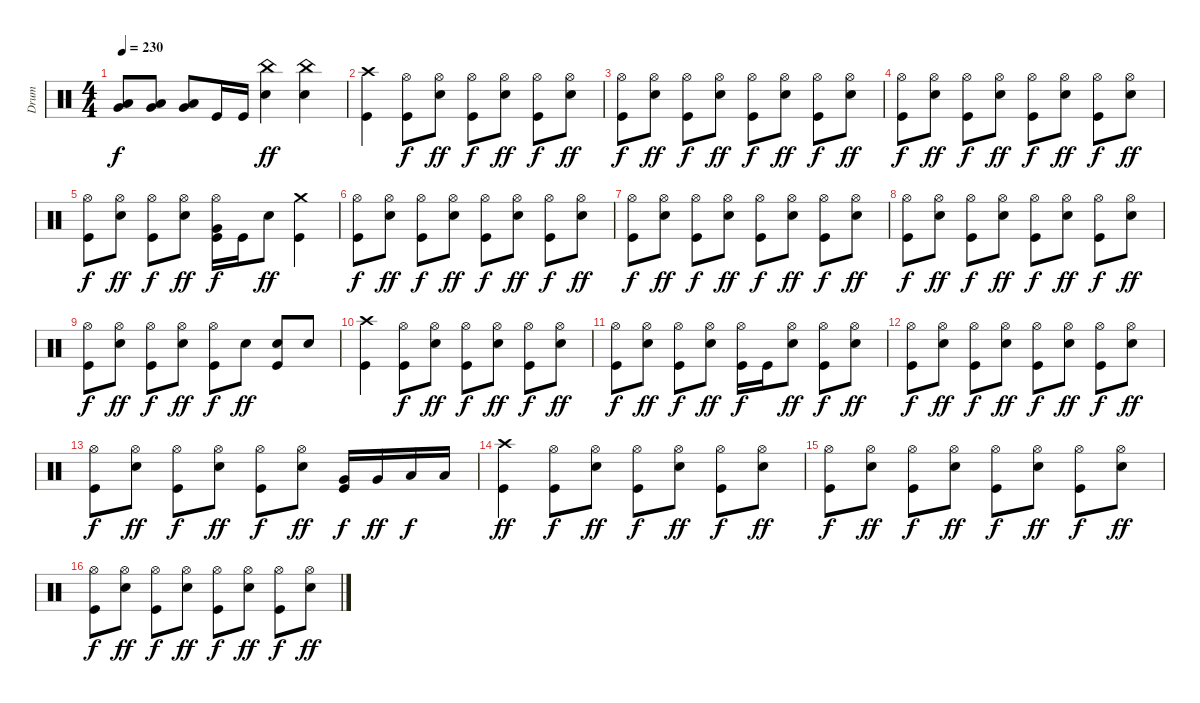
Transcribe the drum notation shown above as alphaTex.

\track ("Drum" "Drum") {instrument percussion}
\staff {score}
\articulation defaults
\ts (4 4)
\tempo 230
\clef neutral
\ks c
("Very Low Tom (hit)" "Low Floor Tom (hit)").8{dy f} ("Very Low Tom (hit)" "Low Floor Tom (hit)").8 ("Very Low Tom (hit)" "Low Floor Tom (hit)").8 "Kick (hit)".16 "Kick (hit)".16 ("Electric Snare (hit)" "China (hit)").4{dy ff} ("Electric Snare (hit)" "China (hit)").4 |
("Kick (hit)" "Crash high (hit)").4 ("Kick (hit)" "Hi-Hat (open)").8{dy f} ("Electric Snare (hit)" "Hi-Hat (open)").8{dy ff} ("Kick (hit)" "Hi-Hat (open)").8{dy f} ("Electric Snare (hit)" "Hi-Hat (open)").8{dy ff} ("Kick (hit)" "Hi-Hat (open)").8{dy f} ("Electric Snare (hit)" "Hi-Hat (open)").8{dy ff} |
("Kick (hit)" "Hi-Hat (open)").8{dy f} ("Electric Snare (hit)" "Hi-Hat (open)").8{dy ff} ("Kick (hit)" "Hi-Hat (open)").8{dy f} ("Electric Snare (hit)" "Hi-Hat (open)").8{dy ff} ("Kick (hit)" "Hi-Hat (open)").8{dy f} ("Electric Snare (hit)" "Hi-Hat (open)").8{dy ff} ("Kick (hit)" "Hi-Hat (open)").8{dy f} ("Electric Snare (hit)" "Hi-Hat (open)").8{dy ff} |
("Kick (hit)" "Hi-Hat (open)").8{dy f} ("Electric Snare (hit)" "Hi-Hat (open)").8{dy ff} ("Kick (hit)" "Hi-Hat (open)").8{dy f} ("Electric Snare (hit)" "Hi-Hat (open)").8{dy ff} ("Kick (hit)" "Hi-Hat (open)").8{dy f} ("Electric Snare (hit)" "Hi-Hat (open)").8{dy ff} ("Kick (hit)" "Hi-Hat (open)").8{dy f} ("Electric Snare (hit)" "Hi-Hat (open)").8{dy ff} |
("Kick (hit)" "Hi-Hat (open)").8{dy f} ("Electric Snare (hit)" "Hi-Hat (open)").8{dy ff} ("Kick (hit)" "Hi-Hat (open)").8{dy f} ("Electric Snare (hit)" "Hi-Hat (open)").8{dy ff} ("Kick (hit)" "Very Low Tom (hit)" "Hi-Hat (open)").16{dy f} "Kick (hit)".16 "Electric Snare (hit)".8{dy ff} ("Kick (hit)" "Crash medium (hit)").4 |
("Kick (hit)" "Hi-Hat (open)").8{dy f} ("Electric Snare (hit)" "Hi-Hat (open)").8{dy ff} ("Kick (hit)" "Hi-Hat (open)").8{dy f} ("Electric Snare (hit)" "Hi-Hat (open)").8{dy ff} ("Kick (hit)" "Hi-Hat (open)").8{dy f} ("Electric Snare (hit)" "Hi-Hat (open)").8{dy ff} ("Kick (hit)" "Hi-Hat (open)").8{dy f} ("Electric Snare (hit)" "Hi-Hat (open)").8{dy ff} |
("Kick (hit)" "Hi-Hat (open)").8{dy f} ("Electric Snare (hit)" "Hi-Hat (open)").8{dy ff} ("Kick (hit)" "Hi-Hat (open)").8{dy f} ("Electric Snare (hit)" "Hi-Hat (open)").8{dy ff} ("Kick (hit)" "Hi-Hat (open)").8{dy f} ("Electric Snare (hit)" "Hi-Hat (open)").8{dy ff} ("Kick (hit)" "Hi-Hat (open)").8{dy f} ("Electric Snare (hit)" "Hi-Hat (open)").8{dy ff} |
("Kick (hit)" "Hi-Hat (open)").8{dy f} ("Electric Snare (hit)" "Hi-Hat (open)").8{dy ff} ("Kick (hit)" "Hi-Hat (open)").8{dy f} ("Electric Snare (hit)" "Hi-Hat (open)").8{dy ff} ("Kick (hit)" "Hi-Hat (open)").8{dy f} ("Electric Snare (hit)" "Hi-Hat (open)").8{dy ff} ("Kick (hit)" "Hi-Hat (open)").8{dy f} ("Electric Snare (hit)" "Hi-Hat (open)").8{dy ff} |
("Kick (hit)" "Hi-Hat (open)").8{dy f} ("Electric Snare (hit)" "Hi-Hat (open)").8{dy ff} ("Kick (hit)" "Hi-Hat (open)").8{dy f} ("Electric Snare (hit)" "Hi-Hat (open)").8{dy ff} ("Kick (hit)" "Hi-Hat (open)").8{dy f} "Electric Snare (hit)".8{dy ff} ("Kick (hit)" "Electric Snare (hit)").8 "Electric Snare (hit)".8 |
("Kick (hit)" "Crash high (hit)").4 ("Kick (hit)" "Hi-Hat (open)").8{dy f} ("Electric Snare (hit)" "Hi-Hat (open)").8{dy ff} ("Kick (hit)" "Hi-Hat (open)").8{dy f} ("Electric Snare (hit)" "Hi-Hat (open)").8{dy ff} ("Kick (hit)" "Hi-Hat (open)").8{dy f} ("Electric Snare (hit)" "Hi-Hat (open)").8{dy ff} |
("Kick (hit)" "Hi-Hat (open)").8{dy f} ("Electric Snare (hit)" "Hi-Hat (open)").8{dy ff} ("Kick (hit)" "Hi-Hat (open)").8{dy f} ("Electric Snare (hit)" "Hi-Hat (open)").8{dy ff} ("Kick (hit)" "Hi-Hat (open)").16{dy f} "Kick (hit)".16 ("Electric Snare (hit)" "Hi-Hat (open)").8{dy ff} ("Kick (hit)" "Hi-Hat (open)").8{dy f} ("Electric Snare (hit)" "Hi-Hat (open)").8{dy ff} |
("Kick (hit)" "Hi-Hat (open)").8{dy f} ("Electric Snare (hit)" "Hi-Hat (open)").8{dy ff} ("Kick (hit)" "Hi-Hat (open)").8{dy f} ("Electric Snare (hit)" "Hi-Hat (open)").8{dy ff} ("Kick (hit)" "Hi-Hat (open)").8{dy f} ("Electric Snare (hit)" "Hi-Hat (open)").8{dy ff} ("Kick (hit)" "Hi-Hat (open)").8{dy f} ("Electric Snare (hit)" "Hi-Hat (open)").8{dy ff} |
("Kick (hit)" "Hi-Hat (open)").8{dy f} ("Electric Snare (hit)" "Hi-Hat (open)").8{dy ff} ("Kick (hit)" "Hi-Hat (open)").8{dy f} ("Electric Snare (hit)" "Hi-Hat (open)").8{dy ff} ("Kick (hit)" "Hi-Hat (open)").8{dy f} ("Electric Snare (hit)" "Hi-Hat (open)").8{dy ff} ("Kick (hit)" "Very Low Tom (hit)").16{dy f} "Very Low Tom (hit)".16{dy ff} "Low Floor Tom (hit)".16{dy f} "Low Floor Tom (hit)".16 |
("Kick (hit)" "Crash high (hit)").4{dy ff} ("Kick (hit)" "Hi-Hat (open)").8{dy f} ("Electric Snare (hit)" "Hi-Hat (open)").8{dy ff} ("Kick (hit)" "Hi-Hat (open)").8{dy f} ("Electric Snare (hit)" "Hi-Hat (open)").8{dy ff} ("Kick (hit)" "Hi-Hat (open)").8{dy f} ("Electric Snare (hit)" "Hi-Hat (open)").8{dy ff} |
("Kick (hit)" "Hi-Hat (open)").8{dy f} ("Electric Snare (hit)" "Hi-Hat (open)").8{dy ff} ("Kick (hit)" "Hi-Hat (open)").8{dy f} ("Electric Snare (hit)" "Hi-Hat (open)").8{dy ff} ("Kick (hit)" "Hi-Hat (open)").8{dy f} ("Electric Snare (hit)" "Hi-Hat (open)").8{dy ff} ("Kick (hit)" "Hi-Hat (open)").8{dy f} ("Electric Snare (hit)" "Hi-Hat (open)").8{dy ff} |
("Kick (hit)" "Hi-Hat (open)").8{dy f} ("Electric Snare (hit)" "Hi-Hat (open)").8{dy ff} ("Kick (hit)" "Hi-Hat (open)").8{dy f} ("Electric Snare (hit)" "Hi-Hat (open)").8{dy ff} ("Kick (hit)" "Hi-Hat (open)").8{dy f} ("Electric Snare (hit)" "Hi-Hat (open)").8{dy ff} ("Kick (hit)" "Hi-Hat (open)").8{dy f} ("Electric Snare (hit)" "Hi-Hat (open)").8{dy ff}
